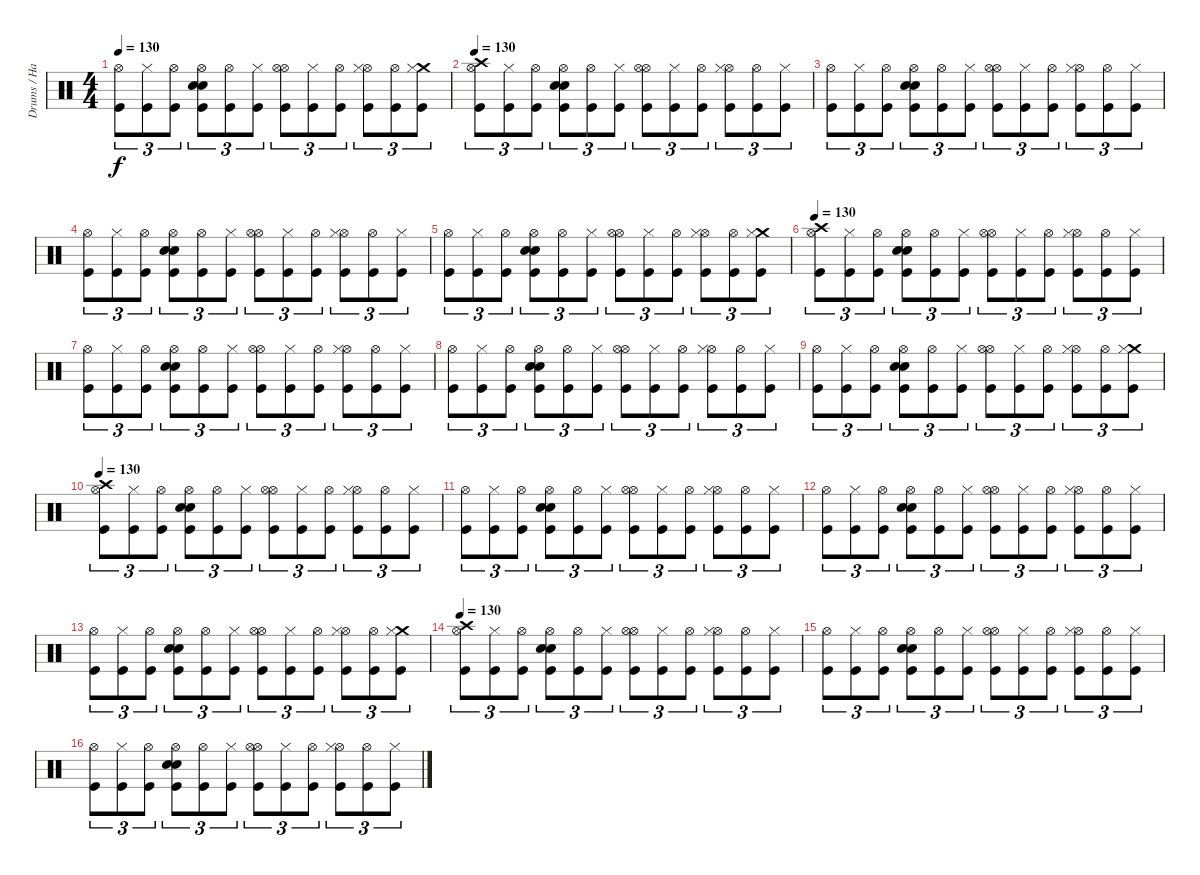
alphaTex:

\track ("Drums / Hammer of God" "Drums / Ha") {instrument percussion}
\staff {score}
\articulation defaults
\ts (4 4)
\tempo 130
\clef neutral
\ks c
("Hi-Hat (open)" "Kick (hit)").8{tu (3 2) dy f} ("Hi-Hat (closed)" "Kick (hit)").8{tu (3 2)} ("Hi-Hat (open)" "Kick (hit)").8{tu (3 2)} ("Snare (hit) 2" "Hi-Hat (open)" "Snare (hit) 2" "Kick (hit)").8{tu (3 2)} ("Hi-Hat (open)" "Kick (hit)").8{tu (3 2)} ("Hi-Hat (closed)" "Kick (hit)").8{tu (3 2)} ("Hi-Hat (open)" "Hi-Hat (open)" "Kick (hit)").8{tu (3 2)} ("Hi-Hat (closed)" "Kick (hit)").8{tu (3 2)} ("Hi-Hat (open)" "Kick (hit)").8{tu (3 2)} ("Hi-Hat (open)" "Hi-Hat (closed)" "Kick (hit)").8{tu (3 2)} ("Hi-Hat (open)" "Kick (hit)").8{tu (3 2)} ("Crash medium (hit)" "Hi-Hat (closed)" "Kick (hit)").8{tu (3 2)} |
\tempo 130
("Crash high (hit)" "Hi-Hat (open)" "Kick (hit)").8{tu (3 2)} ("Hi-Hat (closed)" "Kick (hit)").8{tu (3 2)} ("Hi-Hat (open)" "Kick (hit)").8{tu (3 2)} ("Snare (hit) 2" "Hi-Hat (open)" "Snare (hit) 2" "Kick (hit)").8{tu (3 2)} ("Hi-Hat (open)" "Kick (hit)").8{tu (3 2)} ("Hi-Hat (closed)" "Kick (hit)").8{tu (3 2)} ("Hi-Hat (open)" "Hi-Hat (open)" "Kick (hit)").8{tu (3 2)} ("Hi-Hat (closed)" "Kick (hit)").8{tu (3 2)} ("Hi-Hat (open)" "Kick (hit)").8{tu (3 2)} ("Hi-Hat (open)" "Hi-Hat (closed)" "Kick (hit)").8{tu (3 2)} ("Hi-Hat (open)" "Kick (hit)").8{tu (3 2)} ("Hi-Hat (closed)" "Kick (hit)").8{tu (3 2)} |
("Hi-Hat (open)" "Kick (hit)").8{tu (3 2)} ("Hi-Hat (closed)" "Kick (hit)").8{tu (3 2)} ("Hi-Hat (open)" "Kick (hit)").8{tu (3 2)} ("Snare (hit) 2" "Hi-Hat (open)" "Snare (hit) 2" "Kick (hit)").8{tu (3 2)} ("Hi-Hat (open)" "Kick (hit)").8{tu (3 2)} ("Hi-Hat (closed)" "Kick (hit)").8{tu (3 2)} ("Hi-Hat (open)" "Hi-Hat (open)" "Kick (hit)").8{tu (3 2)} ("Hi-Hat (closed)" "Kick (hit)").8{tu (3 2)} ("Hi-Hat (open)" "Kick (hit)").8{tu (3 2)} ("Hi-Hat (open)" "Hi-Hat (closed)" "Kick (hit)").8{tu (3 2)} ("Hi-Hat (open)" "Kick (hit)").8{tu (3 2)} ("Hi-Hat (closed)" "Kick (hit)").8{tu (3 2)} |
("Hi-Hat (open)" "Kick (hit)").8{tu (3 2)} ("Hi-Hat (closed)" "Kick (hit)").8{tu (3 2)} ("Hi-Hat (open)" "Kick (hit)").8{tu (3 2)} ("Snare (hit) 2" "Hi-Hat (open)" "Snare (hit) 2" "Kick (hit)").8{tu (3 2)} ("Hi-Hat (open)" "Kick (hit)").8{tu (3 2)} ("Hi-Hat (closed)" "Kick (hit)").8{tu (3 2)} ("Hi-Hat (open)" "Hi-Hat (open)" "Kick (hit)").8{tu (3 2)} ("Hi-Hat (closed)" "Kick (hit)").8{tu (3 2)} ("Hi-Hat (open)" "Kick (hit)").8{tu (3 2)} ("Hi-Hat (open)" "Hi-Hat (closed)" "Kick (hit)").8{tu (3 2)} ("Hi-Hat (open)" "Kick (hit)").8{tu (3 2)} ("Hi-Hat (closed)" "Kick (hit)").8{tu (3 2)} |
("Hi-Hat (open)" "Kick (hit)").8{tu (3 2)} ("Hi-Hat (closed)" "Kick (hit)").8{tu (3 2)} ("Hi-Hat (open)" "Kick (hit)").8{tu (3 2)} ("Snare (hit) 2" "Hi-Hat (open)" "Snare (hit) 2" "Kick (hit)").8{tu (3 2)} ("Hi-Hat (open)" "Kick (hit)").8{tu (3 2)} ("Hi-Hat (closed)" "Kick (hit)").8{tu (3 2)} ("Hi-Hat (open)" "Hi-Hat (open)" "Kick (hit)").8{tu (3 2)} ("Hi-Hat (closed)" "Kick (hit)").8{tu (3 2)} ("Hi-Hat (open)" "Kick (hit)").8{tu (3 2)} ("Hi-Hat (open)" "Hi-Hat (closed)" "Kick (hit)").8{tu (3 2)} ("Hi-Hat (open)" "Kick (hit)").8{tu (3 2)} ("Crash medium (hit)" "Hi-Hat (closed)" "Kick (hit)").8{tu (3 2)} |
\tempo 130
("Crash high (hit)" "Hi-Hat (open)" "Kick (hit)").8{tu (3 2)} ("Hi-Hat (closed)" "Kick (hit)").8{tu (3 2)} ("Hi-Hat (open)" "Kick (hit)").8{tu (3 2)} ("Snare (hit) 2" "Hi-Hat (open)" "Snare (hit) 2" "Kick (hit)").8{tu (3 2)} ("Hi-Hat (open)" "Kick (hit)").8{tu (3 2)} ("Hi-Hat (closed)" "Kick (hit)").8{tu (3 2)} ("Hi-Hat (open)" "Hi-Hat (open)" "Kick (hit)").8{tu (3 2)} ("Hi-Hat (closed)" "Kick (hit)").8{tu (3 2)} ("Hi-Hat (open)" "Kick (hit)").8{tu (3 2)} ("Hi-Hat (open)" "Hi-Hat (closed)" "Kick (hit)").8{tu (3 2)} ("Hi-Hat (open)" "Kick (hit)").8{tu (3 2)} ("Hi-Hat (closed)" "Kick (hit)").8{tu (3 2)} |
("Hi-Hat (open)" "Kick (hit)").8{tu (3 2)} ("Hi-Hat (closed)" "Kick (hit)").8{tu (3 2)} ("Hi-Hat (open)" "Kick (hit)").8{tu (3 2)} ("Snare (hit) 2" "Hi-Hat (open)" "Snare (hit) 2" "Kick (hit)").8{tu (3 2)} ("Hi-Hat (open)" "Kick (hit)").8{tu (3 2)} ("Hi-Hat (closed)" "Kick (hit)").8{tu (3 2)} ("Hi-Hat (open)" "Hi-Hat (open)" "Kick (hit)").8{tu (3 2)} ("Hi-Hat (closed)" "Kick (hit)").8{tu (3 2)} ("Hi-Hat (open)" "Kick (hit)").8{tu (3 2)} ("Hi-Hat (open)" "Hi-Hat (closed)" "Kick (hit)").8{tu (3 2)} ("Hi-Hat (open)" "Kick (hit)").8{tu (3 2)} ("Hi-Hat (closed)" "Kick (hit)").8{tu (3 2)} |
("Hi-Hat (open)" "Kick (hit)").8{tu (3 2)} ("Hi-Hat (closed)" "Kick (hit)").8{tu (3 2)} ("Hi-Hat (open)" "Kick (hit)").8{tu (3 2)} ("Snare (hit) 2" "Hi-Hat (open)" "Snare (hit) 2" "Kick (hit)").8{tu (3 2)} ("Hi-Hat (open)" "Kick (hit)").8{tu (3 2)} ("Hi-Hat (closed)" "Kick (hit)").8{tu (3 2)} ("Hi-Hat (open)" "Hi-Hat (open)" "Kick (hit)").8{tu (3 2)} ("Hi-Hat (closed)" "Kick (hit)").8{tu (3 2)} ("Hi-Hat (open)" "Kick (hit)").8{tu (3 2)} ("Hi-Hat (open)" "Hi-Hat (closed)" "Kick (hit)").8{tu (3 2)} ("Hi-Hat (open)" "Kick (hit)").8{tu (3 2)} ("Hi-Hat (closed)" "Kick (hit)").8{tu (3 2)} |
("Hi-Hat (open)" "Kick (hit)").8{tu (3 2)} ("Hi-Hat (closed)" "Kick (hit)").8{tu (3 2)} ("Hi-Hat (open)" "Kick (hit)").8{tu (3 2)} ("Snare (hit) 2" "Hi-Hat (open)" "Snare (hit) 2" "Kick (hit)").8{tu (3 2)} ("Hi-Hat (open)" "Kick (hit)").8{tu (3 2)} ("Hi-Hat (closed)" "Kick (hit)").8{tu (3 2)} ("Hi-Hat (open)" "Hi-Hat (open)" "Kick (hit)").8{tu (3 2)} ("Hi-Hat (closed)" "Kick (hit)").8{tu (3 2)} ("Hi-Hat (open)" "Kick (hit)").8{tu (3 2)} ("Hi-Hat (open)" "Hi-Hat (closed)" "Kick (hit)").8{tu (3 2)} ("Hi-Hat (open)" "Kick (hit)").8{tu (3 2)} ("Crash medium (hit)" "Hi-Hat (closed)" "Kick (hit)").8{tu (3 2)} |
\tempo 130
("Crash high (hit)" "Hi-Hat (open)" "Kick (hit)").8{tu (3 2)} ("Hi-Hat (closed)" "Kick (hit)").8{tu (3 2)} ("Hi-Hat (open)" "Kick (hit)").8{tu (3 2)} ("Snare (hit) 2" "Hi-Hat (open)" "Snare (hit) 2" "Kick (hit)").8{tu (3 2)} ("Hi-Hat (open)" "Kick (hit)").8{tu (3 2)} ("Hi-Hat (closed)" "Kick (hit)").8{tu (3 2)} ("Hi-Hat (open)" "Hi-Hat (open)" "Kick (hit)").8{tu (3 2)} ("Hi-Hat (closed)" "Kick (hit)").8{tu (3 2)} ("Hi-Hat (open)" "Kick (hit)").8{tu (3 2)} ("Hi-Hat (open)" "Hi-Hat (closed)" "Kick (hit)").8{tu (3 2)} ("Hi-Hat (open)" "Kick (hit)").8{tu (3 2)} ("Hi-Hat (closed)" "Kick (hit)").8{tu (3 2)} |
("Hi-Hat (open)" "Kick (hit)").8{tu (3 2)} ("Hi-Hat (closed)" "Kick (hit)").8{tu (3 2)} ("Hi-Hat (open)" "Kick (hit)").8{tu (3 2)} ("Snare (hit) 2" "Hi-Hat (open)" "Snare (hit) 2" "Kick (hit)").8{tu (3 2)} ("Hi-Hat (open)" "Kick (hit)").8{tu (3 2)} ("Hi-Hat (closed)" "Kick (hit)").8{tu (3 2)} ("Hi-Hat (open)" "Hi-Hat (open)" "Kick (hit)").8{tu (3 2)} ("Hi-Hat (closed)" "Kick (hit)").8{tu (3 2)} ("Hi-Hat (open)" "Kick (hit)").8{tu (3 2)} ("Hi-Hat (open)" "Hi-Hat (closed)" "Kick (hit)").8{tu (3 2)} ("Hi-Hat (open)" "Kick (hit)").8{tu (3 2)} ("Hi-Hat (closed)" "Kick (hit)").8{tu (3 2)} |
("Hi-Hat (open)" "Kick (hit)").8{tu (3 2)} ("Hi-Hat (closed)" "Kick (hit)").8{tu (3 2)} ("Hi-Hat (open)" "Kick (hit)").8{tu (3 2)} ("Snare (hit) 2" "Hi-Hat (open)" "Snare (hit) 2" "Kick (hit)").8{tu (3 2)} ("Hi-Hat (open)" "Kick (hit)").8{tu (3 2)} ("Hi-Hat (closed)" "Kick (hit)").8{tu (3 2)} ("Hi-Hat (open)" "Hi-Hat (open)" "Kick (hit)").8{tu (3 2)} ("Hi-Hat (closed)" "Kick (hit)").8{tu (3 2)} ("Hi-Hat (open)" "Kick (hit)").8{tu (3 2)} ("Hi-Hat (open)" "Hi-Hat (closed)" "Kick (hit)").8{tu (3 2)} ("Hi-Hat (open)" "Kick (hit)").8{tu (3 2)} ("Hi-Hat (closed)" "Kick (hit)").8{tu (3 2)} |
("Hi-Hat (open)" "Kick (hit)").8{tu (3 2)} ("Hi-Hat (closed)" "Kick (hit)").8{tu (3 2)} ("Hi-Hat (open)" "Kick (hit)").8{tu (3 2)} ("Snare (hit) 2" "Hi-Hat (open)" "Snare (hit) 2" "Kick (hit)").8{tu (3 2)} ("Hi-Hat (open)" "Kick (hit)").8{tu (3 2)} ("Hi-Hat (closed)" "Kick (hit)").8{tu (3 2)} ("Hi-Hat (open)" "Hi-Hat (open)" "Kick (hit)").8{tu (3 2)} ("Hi-Hat (closed)" "Kick (hit)").8{tu (3 2)} ("Hi-Hat (open)" "Kick (hit)").8{tu (3 2)} ("Hi-Hat (open)" "Hi-Hat (closed)" "Kick (hit)").8{tu (3 2)} ("Hi-Hat (open)" "Kick (hit)").8{tu (3 2)} ("Crash medium (hit)" "Hi-Hat (closed)" "Kick (hit)").8{tu (3 2)} |
\tempo 130
("Crash high (hit)" "Hi-Hat (open)" "Kick (hit)").8{tu (3 2)} ("Hi-Hat (closed)" "Kick (hit)").8{tu (3 2)} ("Hi-Hat (open)" "Kick (hit)").8{tu (3 2)} ("Snare (hit) 2" "Hi-Hat (open)" "Snare (hit) 2" "Kick (hit)").8{tu (3 2)} ("Hi-Hat (open)" "Kick (hit)").8{tu (3 2)} ("Hi-Hat (closed)" "Kick (hit)").8{tu (3 2)} ("Hi-Hat (open)" "Hi-Hat (open)" "Kick (hit)").8{tu (3 2)} ("Hi-Hat (closed)" "Kick (hit)").8{tu (3 2)} ("Hi-Hat (open)" "Kick (hit)").8{tu (3 2)} ("Hi-Hat (open)" "Hi-Hat (closed)" "Kick (hit)").8{tu (3 2)} ("Hi-Hat (open)" "Kick (hit)").8{tu (3 2)} ("Hi-Hat (closed)" "Kick (hit)").8{tu (3 2)} |
("Hi-Hat (open)" "Kick (hit)").8{tu (3 2)} ("Hi-Hat (closed)" "Kick (hit)").8{tu (3 2)} ("Hi-Hat (open)" "Kick (hit)").8{tu (3 2)} ("Snare (hit) 2" "Hi-Hat (open)" "Snare (hit) 2" "Kick (hit)").8{tu (3 2)} ("Hi-Hat (open)" "Kick (hit)").8{tu (3 2)} ("Hi-Hat (closed)" "Kick (hit)").8{tu (3 2)} ("Hi-Hat (open)" "Hi-Hat (open)" "Kick (hit)").8{tu (3 2)} ("Hi-Hat (closed)" "Kick (hit)").8{tu (3 2)} ("Hi-Hat (open)" "Kick (hit)").8{tu (3 2)} ("Hi-Hat (open)" "Hi-Hat (closed)" "Kick (hit)").8{tu (3 2)} ("Hi-Hat (open)" "Kick (hit)").8{tu (3 2)} ("Hi-Hat (closed)" "Kick (hit)").8{tu (3 2)} |
("Hi-Hat (open)" "Kick (hit)").8{tu (3 2)} ("Hi-Hat (closed)" "Kick (hit)").8{tu (3 2)} ("Hi-Hat (open)" "Kick (hit)").8{tu (3 2)} ("Snare (hit) 2" "Hi-Hat (open)" "Snare (hit) 2" "Kick (hit)").8{tu (3 2)} ("Hi-Hat (open)" "Kick (hit)").8{tu (3 2)} ("Hi-Hat (closed)" "Kick (hit)").8{tu (3 2)} ("Hi-Hat (open)" "Hi-Hat (open)" "Kick (hit)").8{tu (3 2)} ("Hi-Hat (closed)" "Kick (hit)").8{tu (3 2)} ("Hi-Hat (open)" "Kick (hit)").8{tu (3 2)} ("Hi-Hat (open)" "Hi-Hat (closed)" "Kick (hit)").8{tu (3 2)} ("Hi-Hat (open)" "Kick (hit)").8{tu (3 2)} ("Hi-Hat (closed)" "Kick (hit)").8{tu (3 2)}
